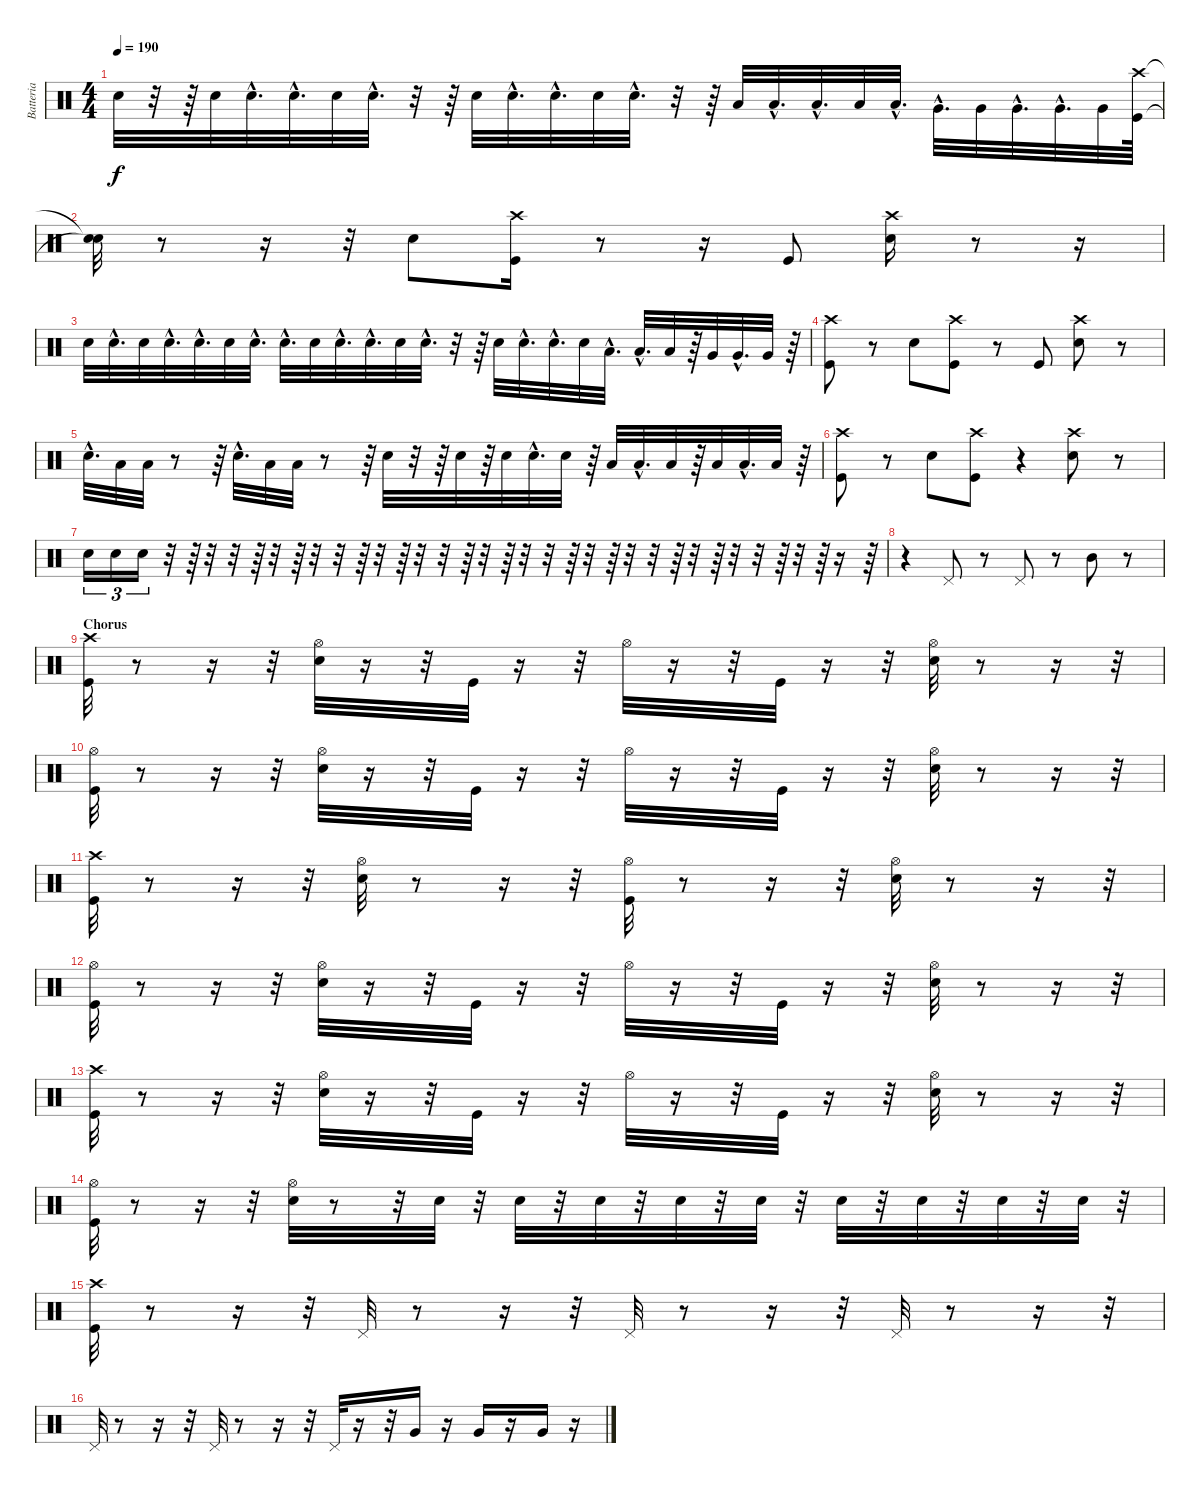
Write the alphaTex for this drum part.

\track ("Batteria" "Batteria") {instrument percussion}
\staff {score}
\articulation defaults
\ts (4 4)
\tempo 190
\clef neutral
\ks c "Snare (hit) 2".32{dy f}
r.32 r.64 "Snare (hit) 2".32 "Snare (hit) 2"{hac}.32{d} "Snare (hit) 2"{hac}.32{d} "Snare (hit) 2".32 "Snare (hit) 2"{hac}.32{d} r.32 r.64 "Snare (hit) 2".32 "Snare (hit) 2"{hac}.32{d} "Snare (hit) 2"{hac}.32{d} "Snare (hit) 2".32 "Snare (hit) 2"{hac}.32{d} r.32 r.64 "Low Tom (hit)".32 "Low Tom (hit)"{hac}.32{d} "Low Tom (hit)"{hac}.32{d} "Low Tom (hit)".32 "Low Tom (hit)"{hac}.32{d} "Very Low Tom (hit)"{hac}.32{d} "Very Low Tom (hit)".32 "Very Low Tom (hit)"{hac}.32{d} "Very Low Tom (hit)"{hac}.32{d} "Very Low Tom (hit)".32 ("Crash high (hit)" "Kick (hit)").64 |
("Snare (hit)"{t} "Snare (hit)"{t}).32 r.8 r.16 r.32 "Snare (hit) 2".8 ("Crash high (hit)" "Kick (hit)").16 r.8 r.16 "Kick (hit)".8 ("Crash high (hit)" "Snare (hit) 2").16 r.8 r.16 |
"Snare (hit) 2".32 "Snare (hit) 2"{hac}.32{d} "Snare (hit) 2".32 "Snare (hit) 2"{hac}.32{d} "Snare (hit) 2"{hac}.32{d} "Snare (hit) 2".32 "Snare (hit) 2"{hac}.32{d} "Snare (hit) 2"{hac}.32{d} "Snare (hit) 2".32 "Snare (hit) 2"{hac}.32{d} "Snare (hit) 2"{hac}.32{d} "Snare (hit) 2".32 "Snare (hit) 2"{hac}.32{d} r.32 r.64 "Snare (hit) 2".32 "Snare (hit) 2"{hac}.32{d} "Snare (hit) 2"{hac}.32{d} "Snare (hit) 2".32 "Low Tom (hit)"{hac}.32{d} "Low Tom (hit)"{hac}.32{d} "Low Tom (hit)".32 r.64 "Very Low Tom (hit)".32 "Very Low Tom (hit)"{hac}.32{d} "Very Low Tom (hit)".32 r.64 |
("Crash high (hit)" "Kick (hit)").8 r.8 "Snare (hit) 2".8 ("Kick (hit)" "Crash high (hit)").8 r.8 "Kick (hit)".8 ("Snare (hit) 2" "Crash high (hit)").8 r.8 |
"Snare (hit) 2"{hac}.32{d} "Low Tom (hit)".32 "Low Tom (hit)".32 r.8 r.64 "Snare (hit) 2"{hac}.32{d} "Low Tom (hit)".32 "Low Tom (hit)".32 r.8 r.64 "Snare (hit) 2".32 r.32 r.64 "Snare (hit) 2".32 r.64 "Snare (hit) 2".32 "Snare (hit) 2"{hac}.32{d} "Snare (hit) 2".32 r.64 "Low Tom (hit)".32 "Low Tom (hit)"{hac}.32{d} "Low Tom (hit)".32 r.64 "Low Tom (hit)".32 "Low Tom (hit)"{hac}.32{d} "Low Tom (hit)".32 r.64 |
("Kick (hit)" "Crash high (hit)").8 r.8 "Snare (hit) 2".8 ("Kick (hit)" "Crash high (hit)").8 r.4 ("Snare (hit) 2" "Crash high (hit)").8 r.8 |
"Snare (hit) 2".16{tu (3 2)} "Snare (hit) 2".16{tu (3 2)} "Snare (hit) 2".16{tu (3 2)} r.32 r.64 r.32 r.32 r.64 r.32 r.64 r.32 r.32 r.64 r.32 r.64 r.32 r.32 r.64 r.32 r.64 r.32 r.32 r.64 r.32 r.64 r.32 r.32 r.64 r.32 r.64 r.32 r.32 r.64 r.32 r.64 r.16 r.64 |
r.4 "Pedal Hi-Hat (hit)".8 r.8 "Pedal Hi-Hat (hit)".8 r.8 "Mid Tom (hit)".8 r.8 |
\section ("" "Chorus")
("Crash high (hit)" "Kick (hit)").32 r.8 r.16 r.32 ("Hi-Hat (open)" "Snare (hit) 2").32 r.16 r.32 "Kick (hit)".32 r.16 r.32 "Hi-Hat (open)".32 r.16 r.32 "Kick (hit)".32 r.16 r.32 ("Snare (hit) 2" "Hi-Hat (open)").32 r.8 r.16 r.32 |
("Kick (hit)" "Hi-Hat (open)").32 r.8 r.16 r.32 ("Snare (hit) 2" "Hi-Hat (open)").32 r.16 r.32 "Kick (hit)".32 r.16 r.32 "Hi-Hat (open)".32 r.16 r.32 "Kick (hit)".32 r.16 r.32 ("Hi-Hat (open)" "Snare (hit) 2").32 r.8 r.16 r.32 |
("Crash high (hit)" "Kick (hit)").32 r.8 r.16 r.32 ("Hi-Hat (open)" "Snare (hit) 2").32 r.8 r.16 r.32 ("Hi-Hat (open)" "Kick (hit)").32 r.8 r.16 r.32 ("Hi-Hat (open)" "Snare (hit) 2").32 r.8 r.16 r.32 |
("Hi-Hat (open)" "Kick (hit)").32 r.8 r.16 r.32 ("Snare (hit) 2" "Hi-Hat (open)").32 r.16 r.32 "Kick (hit)".32 r.16 r.32 "Hi-Hat (open)".32 r.16 r.32 "Kick (hit)".32 r.16 r.32 ("Snare (hit) 2" "Hi-Hat (open)").32 r.8 r.16 r.32 |
("Crash high (hit)" "Kick (hit)").32 r.8 r.16 r.32 ("Hi-Hat (open)" "Snare (hit) 2").32 r.16 r.32 "Kick (hit)".32 r.16 r.32 "Hi-Hat (open)".32 r.16 r.32 "Kick (hit)".32 r.16 r.32 ("Hi-Hat (open)" "Snare (hit) 2").32 r.8 r.16 r.32 |
("Hi-Hat (open)" "Kick (hit)").32 r.8 r.16 r.32 ("Hi-Hat (open)" "Snare (hit) 2").32 r.8 r.32 "Snare (hit) 2".32 r.32 "Snare (hit) 2".32 r.32 "Snare (hit) 2".32 r.32 "Snare (hit) 2".32 r.32 "Snare (hit) 2".32 r.32 "Snare (hit) 2".32 r.32 "Snare (hit) 2".32 r.32 "Snare (hit) 2".32 r.32 "Snare (hit) 2".32 r.32 |
("Crash high (hit)" "Kick (hit)").32 r.8 r.16 r.32 "Pedal Hi-Hat (hit)".32 r.8 r.16 r.32 "Pedal Hi-Hat (hit)".32 r.8 r.16 r.32 "Pedal Hi-Hat (hit)".32 r.8 r.16 r.32 |
"Pedal Hi-Hat (hit)".32 r.8 r.16 r.32 "Pedal Hi-Hat (hit)".32 r.8 r.16 r.32 "Pedal Hi-Hat (hit)".32 r.16 r.32 "Very Low Tom (hit)".16 r.16 "Very Low Tom (hit)".16 r.16 "Very Low Tom (hit)".16 r.16
